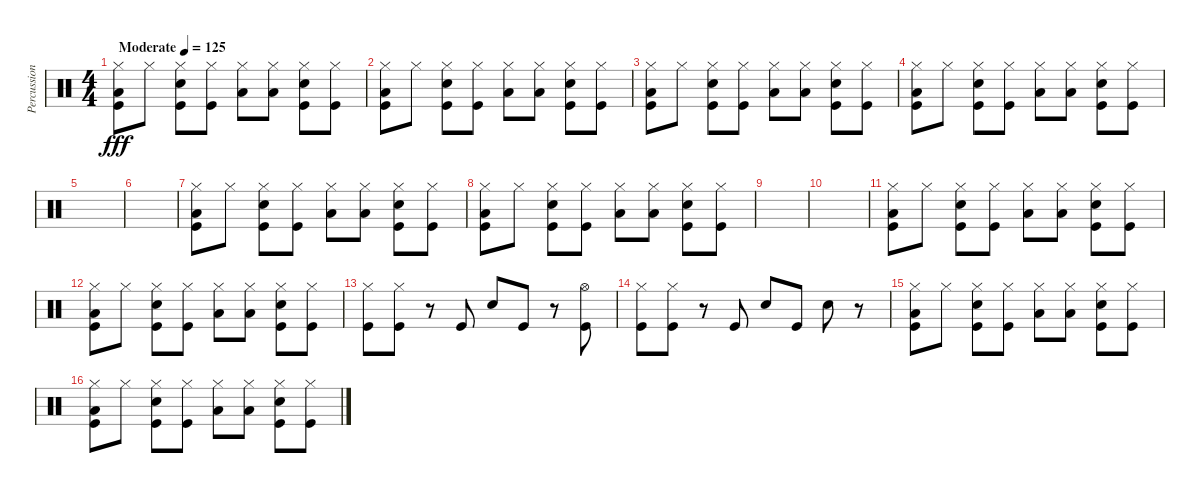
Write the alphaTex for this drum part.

\track ("Percussion" "Percussion") {instrument percussion}
\staff {score}
\articulation defaults
\ts (4 4)
\tempo (125 "Moderate")
\clef neutral
\ks c
("Hi-Hat (closed)" "Kick (hit)" "Low Tom (hit)").8{dy fff} "Hi-Hat (closed)".8 ("Hi-Hat (closed)" "Kick (hit)" "Snare (hit) 2").8 ("Hi-Hat (closed)" "Kick (hit)").8 ("Hi-Hat (closed)" "Low Tom (hit)").8 ("Hi-Hat (closed)" "Low Tom (hit)").8 ("Hi-Hat (closed)" "Kick (hit)" "Snare (hit) 2").8 ("Hi-Hat (closed)" "Kick (hit)").8 |
("Hi-Hat (closed)" "Kick (hit)" "Low Tom (hit)").8 "Hi-Hat (closed)".8 ("Hi-Hat (closed)" "Kick (hit)" "Snare (hit) 2").8 ("Hi-Hat (closed)" "Kick (hit)").8 ("Hi-Hat (closed)" "Low Tom (hit)").8 ("Hi-Hat (closed)" "Low Tom (hit)").8 ("Hi-Hat (closed)" "Kick (hit)" "Snare (hit) 2").8 ("Hi-Hat (closed)" "Kick (hit)").8 |
("Hi-Hat (closed)" "Kick (hit)" "Low Tom (hit)").8 "Hi-Hat (closed)".8 ("Hi-Hat (closed)" "Kick (hit)" "Snare (hit) 2").8 ("Hi-Hat (closed)" "Kick (hit)").8 ("Hi-Hat (closed)" "Low Tom (hit)").8 ("Hi-Hat (closed)" "Low Tom (hit)").8 ("Hi-Hat (closed)" "Kick (hit)" "Snare (hit) 2").8 ("Hi-Hat (closed)" "Kick (hit)").8 |
("Hi-Hat (closed)" "Kick (hit)" "Low Tom (hit)").8 "Hi-Hat (closed)".8 ("Hi-Hat (closed)" "Kick (hit)" "Snare (hit) 2").8 ("Hi-Hat (closed)" "Kick (hit)").8 ("Hi-Hat (closed)" "Low Tom (hit)").8 ("Hi-Hat (closed)" "Low Tom (hit)").8 ("Hi-Hat (closed)" "Kick (hit)" "Snare (hit) 2").8 ("Hi-Hat (closed)" "Kick (hit)").8 |
|
|
("Hi-Hat (closed)" "Kick (hit)" "Low Tom (hit)").8 "Hi-Hat (closed)".8 ("Hi-Hat (closed)" "Kick (hit)" "Snare (hit) 2").8 ("Hi-Hat (closed)" "Kick (hit)").8 ("Hi-Hat (closed)" "Low Tom (hit)").8 ("Hi-Hat (closed)" "Low Tom (hit)").8 ("Hi-Hat (closed)" "Kick (hit)" "Snare (hit) 2").8 ("Hi-Hat (closed)" "Kick (hit)").8 |
("Hi-Hat (closed)" "Kick (hit)" "Low Tom (hit)").8 "Hi-Hat (closed)".8 ("Hi-Hat (closed)" "Kick (hit)" "Snare (hit) 2").8 ("Hi-Hat (closed)" "Kick (hit)").8 ("Hi-Hat (closed)" "Low Tom (hit)").8 ("Hi-Hat (closed)" "Low Tom (hit)").8 ("Hi-Hat (closed)" "Kick (hit)" "Snare (hit) 2").8 ("Hi-Hat (closed)" "Kick (hit)").8 |
|
|
("Hi-Hat (closed)" "Kick (hit)" "Low Tom (hit)").8 "Hi-Hat (closed)".8 ("Hi-Hat (closed)" "Kick (hit)" "Snare (hit) 2").8 ("Hi-Hat (closed)" "Kick (hit)").8 ("Hi-Hat (closed)" "Low Tom (hit)").8 ("Hi-Hat (closed)" "Low Tom (hit)").8 ("Hi-Hat (closed)" "Kick (hit)" "Snare (hit) 2").8 ("Hi-Hat (closed)" "Kick (hit)").8 |
("Hi-Hat (closed)" "Kick (hit)" "Low Tom (hit)").8 "Hi-Hat (closed)".8 ("Hi-Hat (closed)" "Kick (hit)" "Snare (hit) 2").8 ("Hi-Hat (closed)" "Kick (hit)").8 ("Hi-Hat (closed)" "Low Tom (hit)").8 ("Hi-Hat (closed)" "Low Tom (hit)").8 ("Hi-Hat (closed)" "Kick (hit)" "Snare (hit) 2").8 ("Hi-Hat (closed)" "Kick (hit)").8 |
("Kick (hit)" "Hi-Hat (closed)").8 ("Kick (hit)" "Hi-Hat (closed)").8 r.8 "Kick (hit)".8 "Snare (hit) 2".8 "Kick (hit)".8 r.8 ("Kick (hit)" "Hi-Hat (open)").8 |
("Kick (hit)" "Hi-Hat (closed)").8 ("Kick (hit)" "Hi-Hat (closed)").8 r.8 "Kick (hit)".8 "Snare (hit) 2".8 "Kick (hit)".8 "Snare (hit) 2".8 r.8 |
("Hi-Hat (closed)" "Kick (hit)" "Low Tom (hit)").8 "Hi-Hat (closed)".8 ("Hi-Hat (closed)" "Kick (hit)" "Snare (hit) 2").8 ("Hi-Hat (closed)" "Kick (hit)").8 ("Hi-Hat (closed)" "Low Tom (hit)").8 ("Hi-Hat (closed)" "Low Tom (hit)").8 ("Hi-Hat (closed)" "Kick (hit)" "Snare (hit) 2").8 ("Hi-Hat (closed)" "Kick (hit)").8 |
("Hi-Hat (closed)" "Kick (hit)" "Low Tom (hit)").8 "Hi-Hat (closed)".8 ("Hi-Hat (closed)" "Kick (hit)" "Snare (hit) 2").8 ("Hi-Hat (closed)" "Kick (hit)").8 ("Hi-Hat (closed)" "Low Tom (hit)").8 ("Hi-Hat (closed)" "Low Tom (hit)").8 ("Hi-Hat (closed)" "Kick (hit)" "Snare (hit) 2").8 ("Hi-Hat (closed)" "Kick (hit)").8
